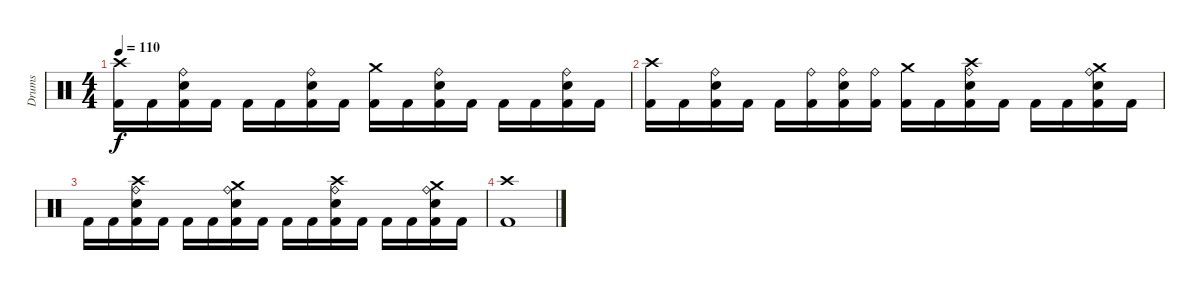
\track ("Drums" "Drums") {instrument percussion}
\staff {score}
\articulation defaults
\ts (4 4)
\tempo 110
\clef neutral
\ks c
("Kick (hit) 2" "Crash high (hit)").16{dy f} "Kick (hit) 2".16 ("Kick (hit) 2" "Electric Snare (hit)" "Ride (bell)").16 "Kick (hit) 2".16 "Kick (hit) 2".16 "Kick (hit) 2".16 ("Kick (hit) 2" "Electric Snare (hit)" "Ride (bell)").16 "Kick (hit) 2".16 ("Kick (hit) 2" "Crash medium (hit)").16 "Kick (hit) 2".16 ("Kick (hit) 2" "Electric Snare (hit)" "Ride (bell)").16 "Kick (hit) 2".16 "Kick (hit) 2".16 "Kick (hit) 2".16 ("Kick (hit) 2" "Electric Snare (hit)" "Ride (bell)").16 "Kick (hit) 2".16 |
("Kick (hit) 2" "Crash high (hit)").16 "Kick (hit) 2".16 ("Kick (hit) 2" "Electric Snare (hit)" "Ride (bell)").16 "Kick (hit) 2".16 "Kick (hit) 2".16 ("Kick (hit) 2" "Ride (bell)").16 ("Kick (hit) 2" "Electric Snare (hit)" "Ride (bell)").16 ("Kick (hit) 2" "Ride (bell)").16 ("Kick (hit) 2" "Crash medium (hit)").16 "Kick (hit) 2".16 ("Kick (hit) 2" "Electric Snare (hit)" "Ride (bell)" "Crash high (hit)").16 "Kick (hit) 2".16 "Kick (hit) 2".16 "Kick (hit) 2".16 ("Kick (hit) 2" "Electric Snare (hit)" "Ride (bell)" "Crash medium (hit)").16 "Kick (hit) 2".16 |
"Kick (hit) 2".16 "Kick (hit) 2".16 ("Kick (hit) 2" "Electric Snare (hit)" "Ride (bell)" "Crash high (hit)").16 "Kick (hit) 2".16 "Kick (hit) 2".16 "Kick (hit) 2".16 ("Kick (hit) 2" "Electric Snare (hit)" "Ride (bell)" "Crash medium (hit)").16 "Kick (hit) 2".16 "Kick (hit) 2".16 "Kick (hit) 2".16 ("Kick (hit) 2" "Electric Snare (hit)" "Ride (bell)" "Crash high (hit)").16 "Kick (hit) 2".16 "Kick (hit) 2".16 "Kick (hit) 2".16 ("Kick (hit) 2" "Electric Snare (hit)" "Ride (bell)" "Crash medium (hit)").16 "Kick (hit) 2".16 |
("Kick (hit) 2" "Crash high (hit)").1
